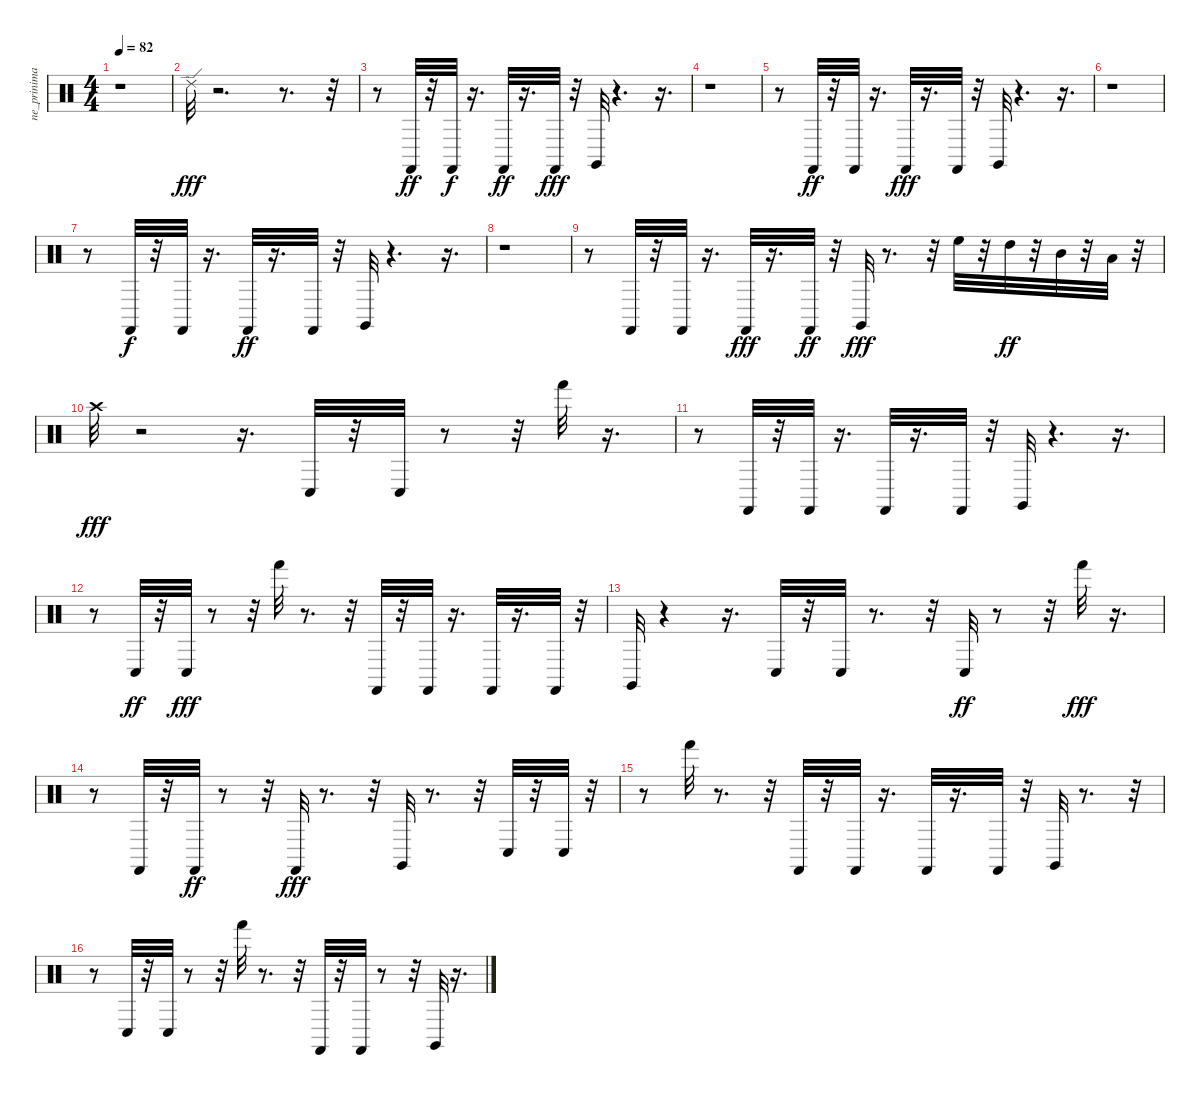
\track ("ne_prinimai" "ne_prinima") {instrument percussion}
\staff {score}
\articulation defaults
\ts (4 4)
\tempo 82
\clef neutral
\ks c
r.1{dy fff} |
"Ride (edge) 2".32 r.2{d} r.8{d} r.32 |
r.8 "Castanets (hit)".32{dy ff} r.32 "Castanets (hit)".32{dy f} r.16{d} "Castanets (hit)".32{dy ff} r.16{d} "Castanets (hit)".32{dy fff} r.32 "Claves (hit)".32 r.4{d} r.16{d} |
r.1 |
r.8 "Castanets (hit)".32{dy ff} r.32 "Castanets (hit)".32 r.16{d} "Castanets (hit)".32{dy fff} r.16{d} "Castanets (hit)".32 r.32 "Claves (hit)".32 r.4{d} r.16{d} |
r.1 |
r.8 "Castanets (hit)".32{dy f} r.32 "Castanets (hit)".32 r.16{d} "Castanets (hit)".32{dy ff} r.16{d} "Castanets (hit)".32 r.32 "Claves (hit)".32 r.4{d} r.16{d} |
r.1 |
r.8 "Castanets (hit)".32 r.32 "Castanets (hit)".32 r.16{d} "Castanets (hit)".32{dy fff} r.16{d} "Castanets (hit)".32{dy ff} r.32 "Claves (hit)".32{dy fff} r.8{d} r.32 "High Floor Tom (hit)".32 r.32 "High Tom (hit)".32{dy ff} r.32 "Mid Tom (hit)".32 r.32 "Low Tom (hit)".32 r.32 |
"Crash high (hit)".32{dy fff} r.2 r.16{d} "Conga low (hit)".32 r.32 "Conga low (hit)".32 r.8 r.32 "Hand (hit)".32 r.16{d} |
r.8 "Castanets (hit)".32 r.32 "Castanets (hit)".32 r.16{d} "Castanets (hit)".32 r.16{d} "Castanets (hit)".32 r.32 "Claves (hit)".32 r.4{d} r.16{d} |
r.8 "Conga low (hit)".32{dy ff} r.32 "Conga low (hit)".32{dy fff} r.8 r.32 "Hand (hit)".32 r.8{d} r.32 "Castanets (hit)".32 r.32 "Castanets (hit)".32 r.16{d} "Castanets (hit)".32 r.16{d} "Castanets (hit)".32 r.32 |
"Claves (hit)".32 r.4 r.16{d} "Conga low (hit)".32 r.32 "Conga low (hit)".32 r.8{d} r.32 "Conga low (hit)".32{dy ff} r.8 r.32 "Hand (hit)".32{dy fff} r.16{d} |
r.8 "Castanets (hit)".32 r.32 "Castanets (hit)".32{dy ff} r.8 r.32 "Castanets (hit)".32{dy fff} r.8{d} r.32 "Claves (hit)".32 r.8{d} r.32 "Conga low (hit)".32 r.32 "Conga low (hit)".32 r.32 |
r.8 "Hand (hit)".32 r.8{d} r.32 "Castanets (hit)".32 r.32 "Castanets (hit)".32 r.16{d} "Castanets (hit)".32 r.16{d} "Castanets (hit)".32 r.32 "Claves (hit)".32 r.8{d} r.32 |
r.8 "Conga low (hit)".32 r.32 "Conga low (hit)".32 r.8 r.32 "Hand (hit)".32 r.8{d} r.32 "Castanets (hit)".32 r.32 "Castanets (hit)".32 r.8 r.32 "Claves (hit)".32 r.16{d}
